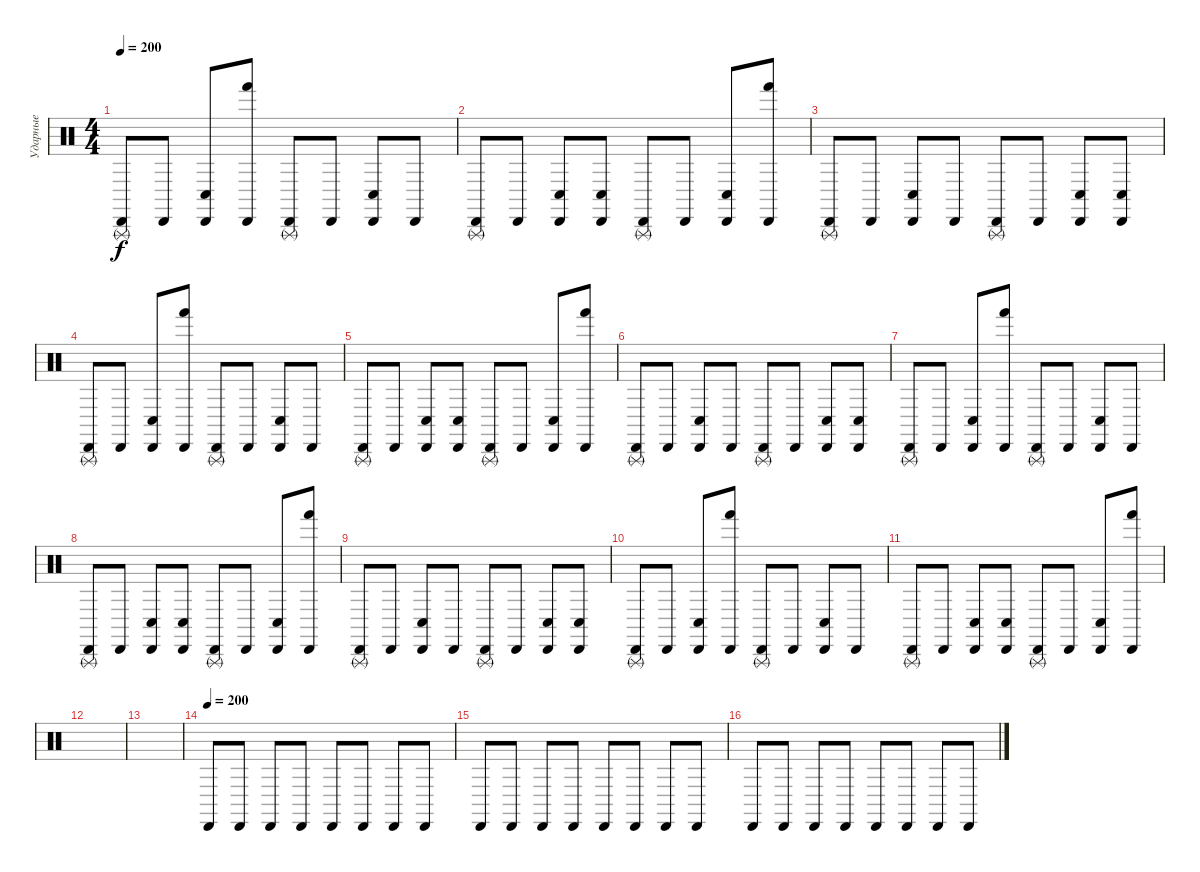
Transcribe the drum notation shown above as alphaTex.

\track ("Ударные" "Ударные") {instrument percussion}
\staff {score}
\articulation defaults
\ts (4 4)
\tempo 200
\clef neutral
\ks c
("Cabasa (hit)" "Triangle (rnute)").8{dy f} "Cabasa (hit)".8 ("Cabasa (hit)" "Conga low (hit)").8 ("Cabasa (hit)" "Hand (hit)").8 ("Cabasa (hit)" "Triangle (rnute)").8 "Cabasa (hit)".8 ("Cabasa (hit)" "Conga low (hit)").8 "Cabasa (hit)".8 |
("Cabasa (hit)" "Triangle (rnute)").8 "Cabasa (hit)".8 ("Cabasa (hit)" "Conga low (hit)").8 ("Cabasa (hit)" "Conga low (hit)").8 ("Cabasa (hit)" "Triangle (rnute)").8 "Cabasa (hit)".8 ("Cabasa (hit)" "Conga low (hit)").8 ("Cabasa (hit)" "Hand (hit)").8 |
("Cabasa (hit)" "Triangle (rnute)").8 "Cabasa (hit)".8 ("Cabasa (hit)" "Conga low (hit)").8 "Cabasa (hit)".8 ("Cabasa (hit)" "Triangle (rnute)").8 "Cabasa (hit)".8 ("Cabasa (hit)" "Conga low (hit)").8 ("Cabasa (hit)" "Conga low (hit)").8 |
("Cabasa (hit)" "Triangle (rnute)").8 "Cabasa (hit)".8 ("Cabasa (hit)" "Conga low (hit)").8 ("Cabasa (hit)" "Hand (hit)").8 ("Cabasa (hit)" "Triangle (rnute)").8 "Cabasa (hit)".8 ("Cabasa (hit)" "Conga low (hit)").8 "Cabasa (hit)".8 |
("Cabasa (hit)" "Triangle (rnute)").8 "Cabasa (hit)".8 ("Cabasa (hit)" "Conga low (hit)").8 ("Cabasa (hit)" "Conga low (hit)").8 ("Cabasa (hit)" "Triangle (rnute)").8 "Cabasa (hit)".8 ("Cabasa (hit)" "Conga low (hit)").8 ("Cabasa (hit)" "Hand (hit)").8 |
("Cabasa (hit)" "Triangle (rnute)").8 "Cabasa (hit)".8 ("Cabasa (hit)" "Conga low (hit)").8 "Cabasa (hit)".8 ("Cabasa (hit)" "Triangle (rnute)").8 "Cabasa (hit)".8 ("Cabasa (hit)" "Conga low (hit)").8 ("Cabasa (hit)" "Conga low (hit)").8 |
("Cabasa (hit)" "Triangle (rnute)").8 "Cabasa (hit)".8 ("Cabasa (hit)" "Conga low (hit)").8 ("Cabasa (hit)" "Hand (hit)").8 ("Cabasa (hit)" "Triangle (rnute)").8 "Cabasa (hit)".8 ("Cabasa (hit)" "Conga low (hit)").8 "Cabasa (hit)".8 |
("Cabasa (hit)" "Triangle (rnute)").8 "Cabasa (hit)".8 ("Cabasa (hit)" "Conga low (hit)").8 ("Cabasa (hit)" "Conga low (hit)").8 ("Cabasa (hit)" "Triangle (rnute)").8 "Cabasa (hit)".8 ("Cabasa (hit)" "Conga low (hit)").8 ("Cabasa (hit)" "Hand (hit)").8 |
("Cabasa (hit)" "Triangle (rnute)").8 "Cabasa (hit)".8 ("Cabasa (hit)" "Conga low (hit)").8 "Cabasa (hit)".8 ("Cabasa (hit)" "Triangle (rnute)").8 "Cabasa (hit)".8 ("Cabasa (hit)" "Conga low (hit)").8 ("Cabasa (hit)" "Conga low (hit)").8 |
("Cabasa (hit)" "Triangle (rnute)").8 "Cabasa (hit)".8 ("Cabasa (hit)" "Conga low (hit)").8 ("Cabasa (hit)" "Hand (hit)").8 ("Cabasa (hit)" "Triangle (rnute)").8 "Cabasa (hit)".8 ("Cabasa (hit)" "Conga low (hit)").8 "Cabasa (hit)".8 |
("Cabasa (hit)" "Triangle (rnute)").8 "Cabasa (hit)".8 ("Cabasa (hit)" "Conga low (hit)").8 ("Cabasa (hit)" "Conga low (hit)").8 ("Cabasa (hit)" "Triangle (rnute)").8 "Cabasa (hit)".8 ("Cabasa (hit)" "Conga low (hit)").8 ("Cabasa (hit)" "Hand (hit)").8 |
|
|
\tempo (200)
"Cabasa (hit)".8 "Cabasa (hit)".8 "Cabasa (hit)".8 "Cabasa (hit)".8 "Cabasa (hit)".8 "Cabasa (hit)".8 "Cabasa (hit)".8 "Cabasa (hit)".8 |
"Cabasa (hit)".8 "Cabasa (hit)".8 "Cabasa (hit)".8 "Cabasa (hit)".8 "Cabasa (hit)".8 "Cabasa (hit)".8 "Cabasa (hit)".8 "Cabasa (hit)".8 |
"Cabasa (hit)".8 "Cabasa (hit)".8 "Cabasa (hit)".8 "Cabasa (hit)".8 "Cabasa (hit)".8 "Cabasa (hit)".8 "Cabasa (hit)".8 "Cabasa (hit)".8
